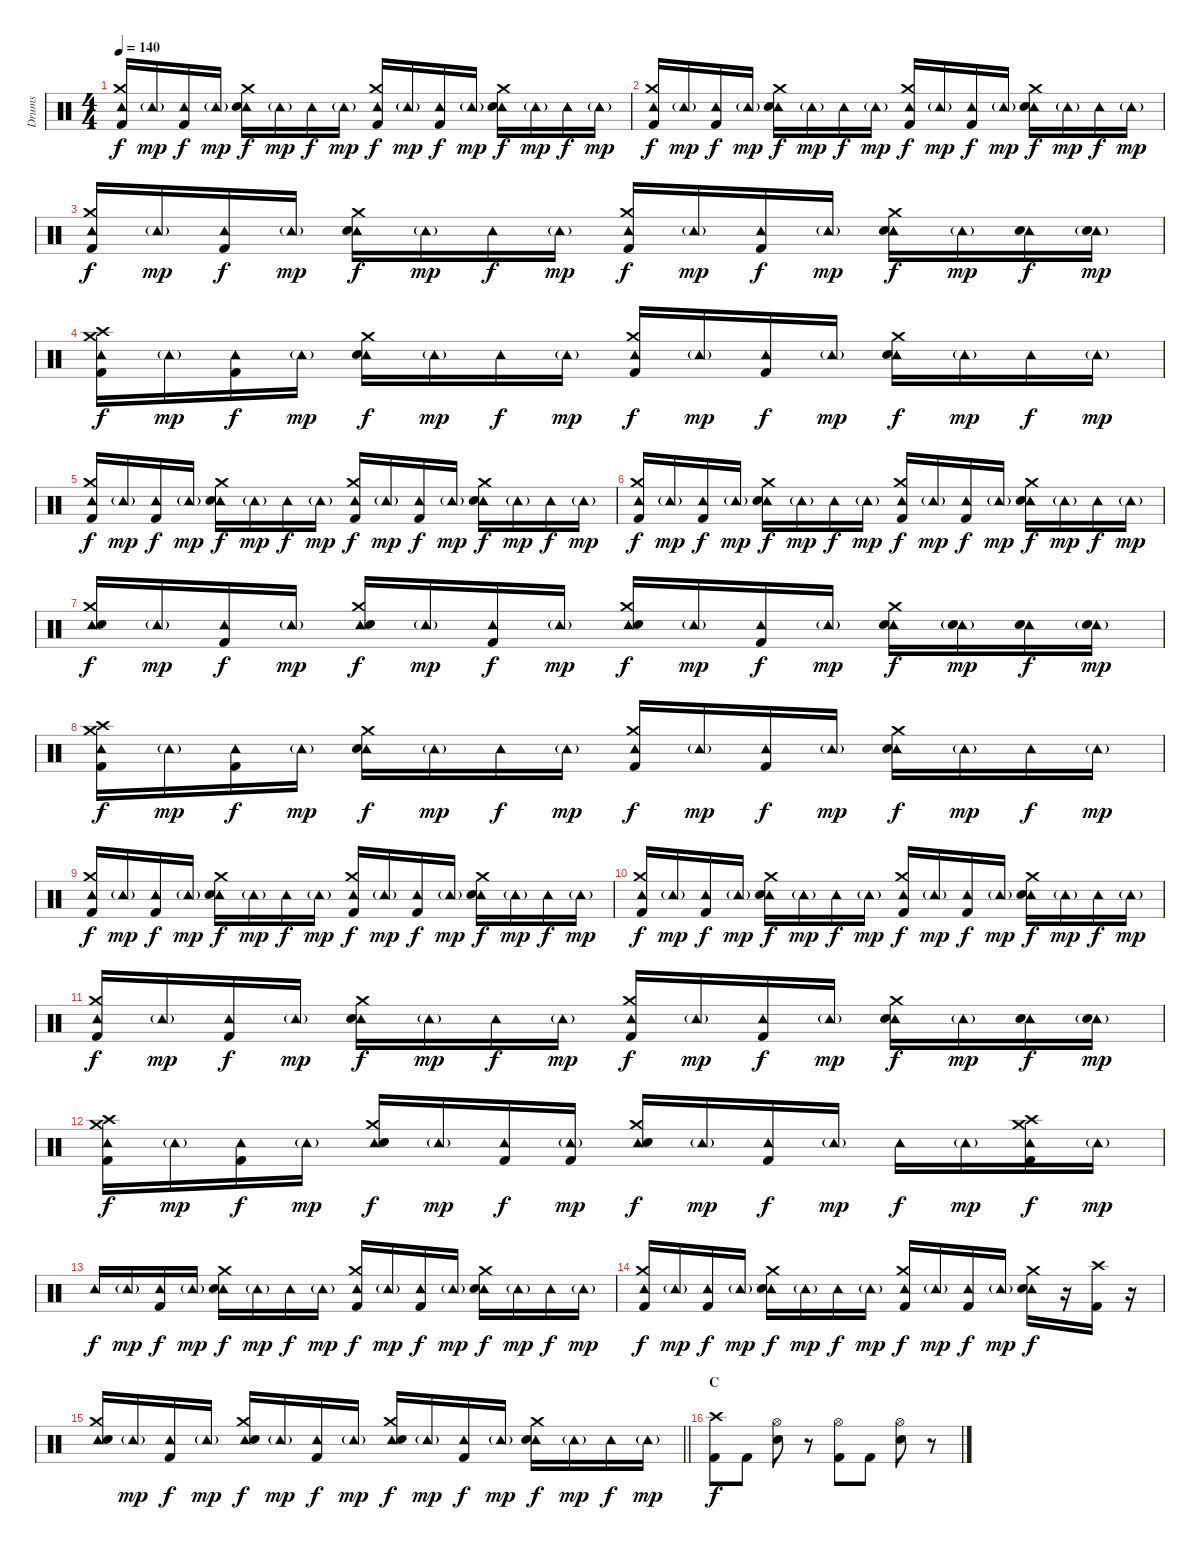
\track ("Drums" "Drums") {instrument percussion}
\staff {score}
\articulation defaults
\ts (4 4)
\tempo 140
\clef neutral
\ks c
("Tambourine (hit)" "Crash medium (hit)" "Kick (hit) 2").16{dy f} "Tambourine (hit)"{g}.16{dy mp} ("Tambourine (hit)" "Kick (hit) 2").16{dy f} "Tambourine (hit)"{g}.16{dy mp} ("Tambourine (hit)" "Crash medium (hit)" "Electric Snare (hit)").16{dy f} "Tambourine (hit)"{g}.16{dy mp} "Tambourine (hit)".16{dy f} "Tambourine (hit)"{g}.16{dy mp} ("Tambourine (hit)" "Crash medium (hit)" "Kick (hit) 2").16{dy f} "Tambourine (hit)"{g}.16{dy mp} ("Tambourine (hit)" "Kick (hit) 2").16{dy f} "Tambourine (hit)"{g}.16{dy mp} ("Tambourine (hit)" "Crash medium (hit)" "Electric Snare (hit)").16{dy f} "Tambourine (hit)"{g}.16{dy mp} "Tambourine (hit)".16{dy f} "Tambourine (hit)"{g}.16{dy mp} |
("Tambourine (hit)" "Crash medium (hit)" "Kick (hit) 2").16{dy f} "Tambourine (hit)"{g}.16{dy mp} ("Tambourine (hit)" "Kick (hit) 2").16{dy f} "Tambourine (hit)"{g}.16{dy mp} ("Tambourine (hit)" "Crash medium (hit)" "Electric Snare (hit)").16{dy f} "Tambourine (hit)"{g}.16{dy mp} "Tambourine (hit)".16{dy f} "Tambourine (hit)"{g}.16{dy mp} ("Tambourine (hit)" "Crash medium (hit)" "Kick (hit) 2").16{dy f} "Tambourine (hit)"{g}.16{dy mp} ("Tambourine (hit)" "Kick (hit) 2").16{dy f} "Tambourine (hit)"{g}.16{dy mp} ("Tambourine (hit)" "Crash medium (hit)" "Electric Snare (hit)").16{dy f} "Tambourine (hit)"{g}.16{dy mp} "Tambourine (hit)".16{dy f} "Tambourine (hit)"{g}.16{dy mp} |
("Tambourine (hit)" "Crash medium (hit)" "Kick (hit) 2").16{dy f} "Tambourine (hit)"{g}.16{dy mp} ("Tambourine (hit)" "Kick (hit) 2").16{dy f} "Tambourine (hit)"{g}.16{dy mp} ("Tambourine (hit)" "Crash medium (hit)" "Electric Snare (hit)").16{dy f} "Tambourine (hit)"{g}.16{dy mp} "Tambourine (hit)".16{dy f} "Tambourine (hit)"{g}.16{dy mp} ("Tambourine (hit)" "Crash medium (hit)" "Kick (hit) 2").16{dy f} "Tambourine (hit)"{g}.16{dy mp} ("Tambourine (hit)" "Kick (hit) 2").16{dy f} "Tambourine (hit)"{g}.16{dy mp} ("Tambourine (hit)" "Crash medium (hit)" "Electric Snare (hit)").16{dy f} "Tambourine (hit)"{g}.16{dy mp} ("Tambourine (hit)" "Electric Snare (hit)").16{dy f} ("Tambourine (hit)"{g} "Electric Snare (hit)").16{dy mp} |
("Tambourine (hit)" "Crash high (hit)" "Crash medium (hit)" "Kick (hit) 2").16{dy f} "Tambourine (hit)"{g}.16{dy mp} ("Tambourine (hit)" "Kick (hit) 2").16{dy f} "Tambourine (hit)"{g}.16{dy mp} ("Tambourine (hit)" "Crash medium (hit)" "Electric Snare (hit)").16{dy f} "Tambourine (hit)"{g}.16{dy mp} "Tambourine (hit)".16{dy f} "Tambourine (hit)"{g}.16{dy mp} ("Tambourine (hit)" "Crash medium (hit)" "Kick (hit) 2").16{dy f} "Tambourine (hit)"{g}.16{dy mp} ("Tambourine (hit)" "Kick (hit) 2").16{dy f} "Tambourine (hit)"{g}.16{dy mp} ("Tambourine (hit)" "Crash medium (hit)" "Electric Snare (hit)").16{dy f} "Tambourine (hit)"{g}.16{dy mp} "Tambourine (hit)".16{dy f} "Tambourine (hit)"{g}.16{dy mp} |
("Tambourine (hit)" "Crash medium (hit)" "Kick (hit) 2").16{dy f} "Tambourine (hit)"{g}.16{dy mp} ("Tambourine (hit)" "Kick (hit) 2").16{dy f} "Tambourine (hit)"{g}.16{dy mp} ("Tambourine (hit)" "Crash medium (hit)" "Electric Snare (hit)").16{dy f} "Tambourine (hit)"{g}.16{dy mp} "Tambourine (hit)".16{dy f} "Tambourine (hit)"{g}.16{dy mp} ("Tambourine (hit)" "Crash medium (hit)" "Kick (hit) 2").16{dy f} "Tambourine (hit)"{g}.16{dy mp} ("Tambourine (hit)" "Kick (hit) 2").16{dy f} "Tambourine (hit)"{g}.16{dy mp} ("Tambourine (hit)" "Crash medium (hit)" "Electric Snare (hit)").16{dy f} "Tambourine (hit)"{g}.16{dy mp} "Tambourine (hit)".16{dy f} "Tambourine (hit)"{g}.16{dy mp} |
("Tambourine (hit)" "Crash medium (hit)" "Kick (hit) 2").16{dy f} "Tambourine (hit)"{g}.16{dy mp} ("Tambourine (hit)" "Kick (hit) 2").16{dy f} "Tambourine (hit)"{g}.16{dy mp} ("Tambourine (hit)" "Crash medium (hit)" "Electric Snare (hit)").16{dy f} "Tambourine (hit)"{g}.16{dy mp} "Tambourine (hit)".16{dy f} "Tambourine (hit)"{g}.16{dy mp} ("Tambourine (hit)" "Crash medium (hit)" "Kick (hit) 2").16{dy f} "Tambourine (hit)"{g}.16{dy mp} ("Tambourine (hit)" "Kick (hit) 2").16{dy f} "Tambourine (hit)"{g}.16{dy mp} ("Tambourine (hit)" "Crash medium (hit)" "Electric Snare (hit)").16{dy f} "Tambourine (hit)"{g}.16{dy mp} "Tambourine (hit)".16{dy f} "Tambourine (hit)"{g}.16{dy mp} |
("Tambourine (hit)" "Crash medium (hit)" "Electric Snare (hit)").16{dy f} "Tambourine (hit)"{g}.16{dy mp} ("Tambourine (hit)" "Kick (hit) 2").16{dy f} "Tambourine (hit)"{g}.16{dy mp} ("Tambourine (hit)" "Crash medium (hit)" "Electric Snare (hit)").16{dy f} "Tambourine (hit)"{g}.16{dy mp} ("Tambourine (hit)" "Kick (hit) 2").16{dy f} "Tambourine (hit)"{g}.16{dy mp} ("Tambourine (hit)" "Crash medium (hit)" "Electric Snare (hit)").16{dy f} "Tambourine (hit)"{g}.16{dy mp} ("Tambourine (hit)" "Kick (hit) 2").16{dy f} "Tambourine (hit)"{g}.16{dy mp} ("Tambourine (hit)" "Crash medium (hit)" "Electric Snare (hit)").16{dy f} ("Tambourine (hit)"{g} "Electric Snare (hit)").16{dy mp} ("Tambourine (hit)" "Electric Snare (hit)").16{dy f} ("Tambourine (hit)"{g} "Electric Snare (hit)").16{dy mp} |
("Tambourine (hit)" "Crash high (hit)" "Crash medium (hit)" "Kick (hit) 2").16{dy f} "Tambourine (hit)"{g}.16{dy mp} ("Tambourine (hit)" "Kick (hit) 2").16{dy f} "Tambourine (hit)"{g}.16{dy mp} ("Tambourine (hit)" "Crash medium (hit)" "Electric Snare (hit)").16{dy f} "Tambourine (hit)"{g}.16{dy mp} "Tambourine (hit)".16{dy f} "Tambourine (hit)"{g}.16{dy mp} ("Tambourine (hit)" "Crash medium (hit)" "Kick (hit) 2").16{dy f} "Tambourine (hit)"{g}.16{dy mp} ("Tambourine (hit)" "Kick (hit) 2").16{dy f} "Tambourine (hit)"{g}.16{dy mp} ("Tambourine (hit)" "Crash medium (hit)" "Electric Snare (hit)").16{dy f} "Tambourine (hit)"{g}.16{dy mp} "Tambourine (hit)".16{dy f} "Tambourine (hit)"{g}.16{dy mp} |
("Tambourine (hit)" "Crash medium (hit)" "Kick (hit) 2").16{dy f} "Tambourine (hit)"{g}.16{dy mp} ("Tambourine (hit)" "Kick (hit) 2").16{dy f} "Tambourine (hit)"{g}.16{dy mp} ("Tambourine (hit)" "Crash medium (hit)" "Electric Snare (hit)").16{dy f} "Tambourine (hit)"{g}.16{dy mp} "Tambourine (hit)".16{dy f} "Tambourine (hit)"{g}.16{dy mp} ("Tambourine (hit)" "Crash medium (hit)" "Kick (hit) 2").16{dy f} "Tambourine (hit)"{g}.16{dy mp} ("Tambourine (hit)" "Kick (hit) 2").16{dy f} "Tambourine (hit)"{g}.16{dy mp} ("Tambourine (hit)" "Crash medium (hit)" "Electric Snare (hit)").16{dy f} "Tambourine (hit)"{g}.16{dy mp} "Tambourine (hit)".16{dy f} "Tambourine (hit)"{g}.16{dy mp} |
("Tambourine (hit)" "Crash medium (hit)" "Kick (hit) 2").16{dy f} "Tambourine (hit)"{g}.16{dy mp} ("Tambourine (hit)" "Kick (hit) 2").16{dy f} "Tambourine (hit)"{g}.16{dy mp} ("Tambourine (hit)" "Crash medium (hit)" "Electric Snare (hit)").16{dy f} "Tambourine (hit)"{g}.16{dy mp} "Tambourine (hit)".16{dy f} "Tambourine (hit)"{g}.16{dy mp} ("Tambourine (hit)" "Crash medium (hit)" "Kick (hit) 2").16{dy f} "Tambourine (hit)"{g}.16{dy mp} ("Tambourine (hit)" "Kick (hit) 2").16{dy f} "Tambourine (hit)"{g}.16{dy mp} ("Tambourine (hit)" "Crash medium (hit)" "Electric Snare (hit)").16{dy f} "Tambourine (hit)"{g}.16{dy mp} "Tambourine (hit)".16{dy f} "Tambourine (hit)"{g}.16{dy mp} |
("Tambourine (hit)" "Crash medium (hit)" "Kick (hit) 2").16{dy f} "Tambourine (hit)"{g}.16{dy mp} ("Tambourine (hit)" "Kick (hit) 2").16{dy f} "Tambourine (hit)"{g}.16{dy mp} ("Tambourine (hit)" "Crash medium (hit)" "Electric Snare (hit)").16{dy f} "Tambourine (hit)"{g}.16{dy mp} "Tambourine (hit)".16{dy f} "Tambourine (hit)"{g}.16{dy mp} ("Tambourine (hit)" "Crash medium (hit)" "Kick (hit) 2").16{dy f} "Tambourine (hit)"{g}.16{dy mp} ("Tambourine (hit)" "Kick (hit) 2").16{dy f} "Tambourine (hit)"{g}.16{dy mp} ("Tambourine (hit)" "Crash medium (hit)" "Electric Snare (hit)").16{dy f} "Tambourine (hit)"{g}.16{dy mp} ("Tambourine (hit)" "Electric Snare (hit)").16{dy f} ("Tambourine (hit)"{g} "Electric Snare (hit)").16{dy mp} |
("Tambourine (hit)" "Crash high (hit)" "Crash medium (hit)" "Kick (hit) 2").16{dy f} "Tambourine (hit)"{g}.16{dy mp} ("Tambourine (hit)" "Kick (hit) 2").16{dy f} "Tambourine (hit)"{g}.16{dy mp} ("Tambourine (hit)" "Crash medium (hit)" "Electric Snare (hit)").16{dy f} "Tambourine (hit)"{g}.16{dy mp} ("Tambourine (hit)" "Kick (hit) 2").16{dy f} ("Tambourine (hit)"{g} "Kick (hit) 2").16{dy mp} ("Tambourine (hit)" "Crash medium (hit)" "Electric Snare (hit)").16{dy f} "Tambourine (hit)"{g}.16{dy mp} ("Tambourine (hit)" "Kick (hit) 2").16{dy f} "Tambourine (hit)"{g}.16{dy mp} "Tambourine (hit)".16{dy f} "Tambourine (hit)"{g}.16{dy mp} ("Tambourine (hit)" "Crash high (hit)" "Crash medium (hit)" "Kick (hit) 2").16{dy f} "Tambourine (hit)"{g}.16{dy mp} |
"Tambourine (hit)".16{dy f} "Tambourine (hit)"{g}.16{dy mp} ("Tambourine (hit)" "Kick (hit) 2").16{dy f} "Tambourine (hit)"{g}.16{dy mp} ("Tambourine (hit)" "Crash medium (hit)" "Electric Snare (hit)").16{dy f} "Tambourine (hit)"{g}.16{dy mp} "Tambourine (hit)".16{dy f} "Tambourine (hit)"{g}.16{dy mp} ("Tambourine (hit)" "Crash medium (hit)" "Kick (hit) 2").16{dy f} "Tambourine (hit)"{g}.16{dy mp} ("Tambourine (hit)" "Kick (hit) 2").16{dy f} "Tambourine (hit)"{g}.16{dy mp} ("Tambourine (hit)" "Crash medium (hit)" "Electric Snare (hit)").16{dy f} "Tambourine (hit)"{g}.16{dy mp} "Tambourine (hit)".16{dy f} "Tambourine (hit)"{g}.16{dy mp} |
("Tambourine (hit)" "Crash medium (hit)" "Kick (hit) 2").16{dy f} "Tambourine (hit)"{g}.16{dy mp} ("Tambourine (hit)" "Kick (hit) 2").16{dy f} "Tambourine (hit)"{g}.16{dy mp} ("Tambourine (hit)" "Crash medium (hit)" "Electric Snare (hit)").16{dy f} "Tambourine (hit)"{g}.16{dy mp} "Tambourine (hit)".16{dy f} "Tambourine (hit)"{g}.16{dy mp} ("Tambourine (hit)" "Crash medium (hit)" "Kick (hit) 2").16{dy f} "Tambourine (hit)"{g}.16{dy mp} ("Tambourine (hit)" "Kick (hit) 2").16{dy f} "Tambourine (hit)"{g}.16{dy mp} ("Tambourine (hit)" "Crash medium (hit)" "Electric Snare (hit)").16{dy f} r.16 ("Crash high (hit)" "Kick (hit) 2").16 r.16 |
\barLineRight lightlight
("Tambourine (hit)" "Crash medium (hit)" "Electric Snare (hit)").16 "Tambourine (hit)"{g}.16{dy mp} ("Tambourine (hit)" "Kick (hit) 2").16{dy f} "Tambourine (hit)"{g}.16{dy mp} ("Tambourine (hit)" "Crash medium (hit)" "Electric Snare (hit)").16{dy f} "Tambourine (hit)"{g}.16{dy mp} ("Tambourine (hit)" "Kick (hit) 2").16{dy f} "Tambourine (hit)"{g}.16{dy mp} ("Tambourine (hit)" "Crash medium (hit)" "Electric Snare (hit)").16{dy f} "Tambourine (hit)"{g}.16{dy mp} ("Tambourine (hit)" "Kick (hit) 2").16{dy f} "Tambourine (hit)"{g}.16{dy mp} ("Tambourine (hit)" "Crash medium (hit)" "Electric Snare (hit)").16{dy f} "Tambourine (hit)"{g}.16{dy mp} "Tambourine (hit)".16{dy f} "Tambourine (hit)"{g}.16{dy mp} |
\section ("" "C")
("Crash high (hit)" "Kick (hit) 2").8{dy f} "Kick (hit) 2".8 ("Hi-Hat (open)" "Electric Snare (hit)").8 r.8 ("Hi-Hat (open)" "Kick (hit) 2").8 "Kick (hit) 2".8 ("Hi-Hat (open)" "Electric Snare (hit)").8 r.8
